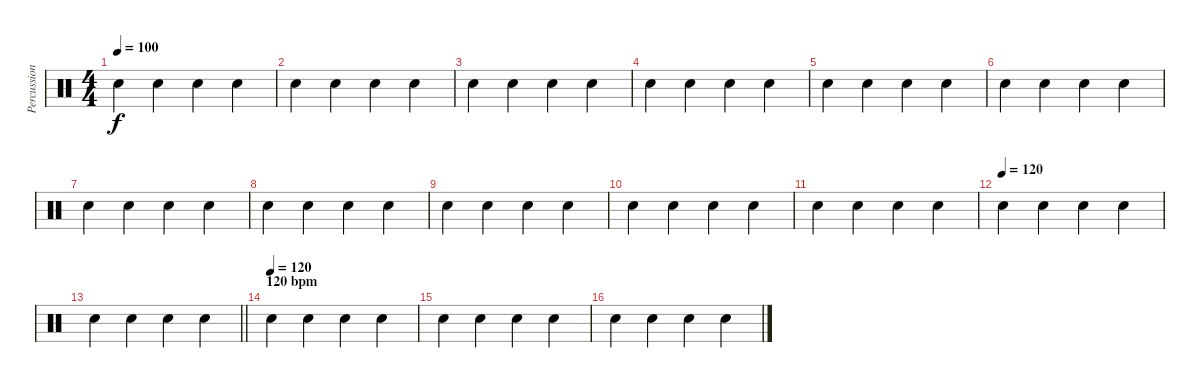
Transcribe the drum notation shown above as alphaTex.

\track ("Percussion" "Percussion") {instrument percussion}
\staff {score}
\articulation defaults
\ts (4 4)
\tempo 100
\clef neutral
\ks c "Snare (hit) 2".4{dy f} "Snare (hit) 2".4 "Snare (hit) 2".4 "Snare (hit) 2".4
|
"Snare (hit) 2".4 "Snare (hit) 2".4 "Snare (hit) 2".4 "Snare (hit) 2".4 |
"Snare (hit) 2".4 "Snare (hit) 2".4 "Snare (hit) 2".4 "Snare (hit) 2".4 |
"Snare (hit) 2".4 "Snare (hit) 2".4 "Snare (hit) 2".4 "Snare (hit) 2".4 |
"Snare (hit) 2".4 "Snare (hit) 2".4 "Snare (hit) 2".4 "Snare (hit) 2".4 |
"Snare (hit) 2".4 "Snare (hit) 2".4 "Snare (hit) 2".4 "Snare (hit) 2".4 |
"Snare (hit) 2".4 "Snare (hit) 2".4 "Snare (hit) 2".4 "Snare (hit) 2".4 |
"Snare (hit) 2".4 "Snare (hit) 2".4 "Snare (hit) 2".4 "Snare (hit) 2".4 |
"Snare (hit) 2".4 "Snare (hit) 2".4 "Snare (hit) 2".4 "Snare (hit) 2".4 |
"Snare (hit) 2".4 "Snare (hit) 2".4 "Snare (hit) 2".4 "Snare (hit) 2".4 |
"Snare (hit) 2".4 "Snare (hit) 2".4 "Snare (hit) 2".4 "Snare (hit) 2".4 |
\tempo (120)
"Snare (hit) 2".4 "Snare (hit) 2".4 "Snare (hit) 2".4 "Snare (hit) 2".4 |
\barLineRight lightlight "Snare (hit) 2".4 "Snare (hit) 2".4 "Snare (hit) 2".4 "Snare (hit) 2".4
|
\section ("" "120 bpm")
\tempo (120)
"Snare (hit) 2".4 "Snare (hit) 2".4 "Snare (hit) 2".4 "Snare (hit) 2".4 |
"Snare (hit) 2".4 "Snare (hit) 2".4 "Snare (hit) 2".4 "Snare (hit) 2".4 |
"Snare (hit) 2".4 "Snare (hit) 2".4 "Snare (hit) 2".4 "Snare (hit) 2".4
